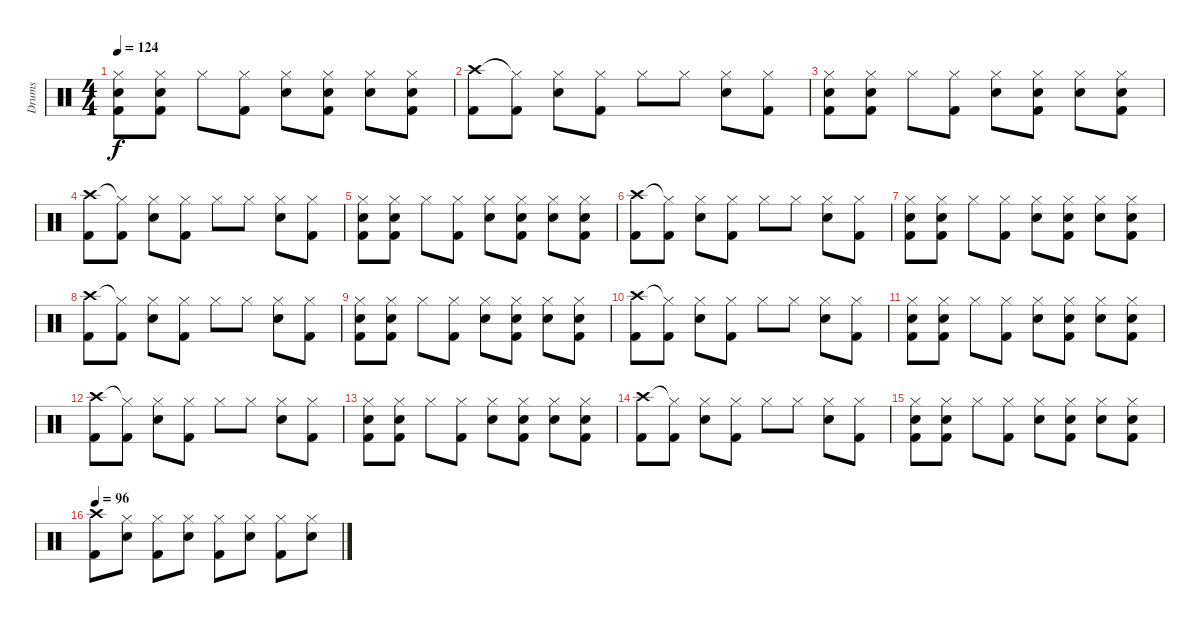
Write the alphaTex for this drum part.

\track ("Drums" "Drums") {instrument percussion}
\staff {score}
\articulation defaults
\ts (4 4)
\tempo 124
\clef neutral
\ks c
("Hi-Hat (closed)" "Electric Snare (hit)" "Kick (hit) 2").8{dy f} ("Hi-Hat (closed)" "Electric Snare (hit)" "Kick (hit) 2").8 "Hi-Hat (closed)".8 ("Hi-Hat (closed)" "Kick (hit) 2").8 ("Hi-Hat (closed)" "Electric Snare (hit)").8 ("Hi-Hat (closed)" "Electric Snare (hit)" "Kick (hit) 2").8 ("Hi-Hat (closed)" "Electric Snare (hit)").8 ("Hi-Hat (closed)" "Electric Snare (hit)" "Kick (hit) 2").8 |
("Crash high (hit)" "Kick (hit) 2").8 ("Hi-Hat (closed)"{t} "Kick (hit) 2").8 ("Hi-Hat (closed)" "Electric Snare (hit)").8 ("Hi-Hat (closed)" "Kick (hit) 2").8 "Hi-Hat (closed)".8 "Hi-Hat (closed)".8 ("Hi-Hat (closed)" "Electric Snare (hit)").8 ("Hi-Hat (closed)" "Kick (hit) 2").8 |
("Hi-Hat (closed)" "Electric Snare (hit)" "Kick (hit) 2").8 ("Hi-Hat (closed)" "Electric Snare (hit)" "Kick (hit) 2").8 "Hi-Hat (closed)".8 ("Hi-Hat (closed)" "Kick (hit) 2").8 ("Hi-Hat (closed)" "Electric Snare (hit)").8 ("Hi-Hat (closed)" "Electric Snare (hit)" "Kick (hit) 2").8 ("Hi-Hat (closed)" "Electric Snare (hit)").8 ("Hi-Hat (closed)" "Electric Snare (hit)" "Kick (hit) 2").8 |
("Crash high (hit)" "Kick (hit) 2").8 ("Hi-Hat (closed)"{t} "Kick (hit) 2").8 ("Hi-Hat (closed)" "Electric Snare (hit)").8 ("Hi-Hat (closed)" "Kick (hit) 2").8 "Hi-Hat (closed)".8 "Hi-Hat (closed)".8 ("Hi-Hat (closed)" "Electric Snare (hit)").8 ("Hi-Hat (closed)" "Kick (hit) 2").8 |
("Hi-Hat (closed)" "Electric Snare (hit)" "Kick (hit) 2").8 ("Hi-Hat (closed)" "Electric Snare (hit)" "Kick (hit) 2").8 "Hi-Hat (closed)".8 ("Hi-Hat (closed)" "Kick (hit) 2").8 ("Hi-Hat (closed)" "Electric Snare (hit)").8 ("Hi-Hat (closed)" "Electric Snare (hit)" "Kick (hit) 2").8 ("Hi-Hat (closed)" "Electric Snare (hit)").8 ("Hi-Hat (closed)" "Electric Snare (hit)" "Kick (hit) 2").8 |
("Crash high (hit)" "Kick (hit) 2").8 ("Hi-Hat (closed)"{t} "Kick (hit) 2").8 ("Hi-Hat (closed)" "Electric Snare (hit)").8 ("Hi-Hat (closed)" "Kick (hit) 2").8 "Hi-Hat (closed)".8 "Hi-Hat (closed)".8 ("Hi-Hat (closed)" "Electric Snare (hit)").8 ("Hi-Hat (closed)" "Kick (hit) 2").8 |
("Hi-Hat (closed)" "Electric Snare (hit)" "Kick (hit) 2").8 ("Hi-Hat (closed)" "Electric Snare (hit)" "Kick (hit) 2").8 "Hi-Hat (closed)".8 ("Hi-Hat (closed)" "Kick (hit) 2").8 ("Hi-Hat (closed)" "Electric Snare (hit)").8 ("Hi-Hat (closed)" "Electric Snare (hit)" "Kick (hit) 2").8 ("Hi-Hat (closed)" "Electric Snare (hit)").8 ("Hi-Hat (closed)" "Electric Snare (hit)" "Kick (hit) 2").8 |
("Crash high (hit)" "Kick (hit) 2").8 ("Hi-Hat (closed)"{t} "Kick (hit) 2").8 ("Hi-Hat (closed)" "Electric Snare (hit)").8 ("Hi-Hat (closed)" "Kick (hit) 2").8 "Hi-Hat (closed)".8 "Hi-Hat (closed)".8 ("Hi-Hat (closed)" "Electric Snare (hit)").8 ("Hi-Hat (closed)" "Kick (hit) 2").8 |
("Hi-Hat (closed)" "Electric Snare (hit)" "Kick (hit) 2").8 ("Hi-Hat (closed)" "Electric Snare (hit)" "Kick (hit) 2").8 "Hi-Hat (closed)".8 ("Hi-Hat (closed)" "Kick (hit) 2").8 ("Hi-Hat (closed)" "Electric Snare (hit)").8 ("Hi-Hat (closed)" "Electric Snare (hit)" "Kick (hit) 2").8 ("Hi-Hat (closed)" "Electric Snare (hit)").8 ("Hi-Hat (closed)" "Electric Snare (hit)" "Kick (hit) 2").8 |
("Crash high (hit)" "Kick (hit) 2").8 ("Hi-Hat (closed)"{t} "Kick (hit) 2").8 ("Hi-Hat (closed)" "Electric Snare (hit)").8 ("Hi-Hat (closed)" "Kick (hit) 2").8 "Hi-Hat (closed)".8 "Hi-Hat (closed)".8 ("Hi-Hat (closed)" "Electric Snare (hit)").8 ("Hi-Hat (closed)" "Kick (hit) 2").8 |
("Hi-Hat (closed)" "Electric Snare (hit)" "Kick (hit) 2").8 ("Hi-Hat (closed)" "Electric Snare (hit)" "Kick (hit) 2").8 "Hi-Hat (closed)".8 ("Hi-Hat (closed)" "Kick (hit) 2").8 ("Hi-Hat (closed)" "Electric Snare (hit)").8 ("Hi-Hat (closed)" "Electric Snare (hit)" "Kick (hit) 2").8 ("Hi-Hat (closed)" "Electric Snare (hit)").8 ("Hi-Hat (closed)" "Electric Snare (hit)" "Kick (hit) 2").8 |
("Crash high (hit)" "Kick (hit) 2").8 ("Hi-Hat (closed)"{t} "Kick (hit) 2").8 ("Hi-Hat (closed)" "Electric Snare (hit)").8 ("Hi-Hat (closed)" "Kick (hit) 2").8 "Hi-Hat (closed)".8 "Hi-Hat (closed)".8 ("Hi-Hat (closed)" "Electric Snare (hit)").8 ("Hi-Hat (closed)" "Kick (hit) 2").8 |
("Hi-Hat (closed)" "Electric Snare (hit)" "Kick (hit) 2").8 ("Hi-Hat (closed)" "Electric Snare (hit)" "Kick (hit) 2").8 "Hi-Hat (closed)".8 ("Hi-Hat (closed)" "Kick (hit) 2").8 ("Hi-Hat (closed)" "Electric Snare (hit)").8 ("Hi-Hat (closed)" "Electric Snare (hit)" "Kick (hit) 2").8 ("Hi-Hat (closed)" "Electric Snare (hit)").8 ("Hi-Hat (closed)" "Electric Snare (hit)" "Kick (hit) 2").8 |
("Crash high (hit)" "Kick (hit) 2").8 ("Hi-Hat (closed)"{t} "Kick (hit) 2").8 ("Hi-Hat (closed)" "Electric Snare (hit)").8 ("Hi-Hat (closed)" "Kick (hit) 2").8 "Hi-Hat (closed)".8 "Hi-Hat (closed)".8 ("Hi-Hat (closed)" "Electric Snare (hit)").8 ("Hi-Hat (closed)" "Kick (hit) 2").8 |
("Hi-Hat (closed)" "Electric Snare (hit)" "Kick (hit) 2").8 ("Hi-Hat (closed)" "Electric Snare (hit)" "Kick (hit) 2").8 "Hi-Hat (closed)".8 ("Hi-Hat (closed)" "Kick (hit) 2").8 ("Hi-Hat (closed)" "Electric Snare (hit)").8 ("Hi-Hat (closed)" "Electric Snare (hit)" "Kick (hit) 2").8 ("Hi-Hat (closed)" "Electric Snare (hit)").8 ("Hi-Hat (closed)" "Electric Snare (hit)" "Kick (hit) 2").8 |
\tempo 96
("Crash high (hit)" "Kick (hit) 2").8 ("Hi-Hat (closed)" "Electric Snare (hit)").8 ("Hi-Hat (closed)" "Kick (hit) 2").8 ("Hi-Hat (closed)" "Electric Snare (hit)").8 ("Hi-Hat (closed)" "Kick (hit) 2").8 ("Hi-Hat (closed)" "Electric Snare (hit)").8 ("Hi-Hat (closed)" "Kick (hit) 2").8 ("Hi-Hat (closed)" "Electric Snare (hit)").8
